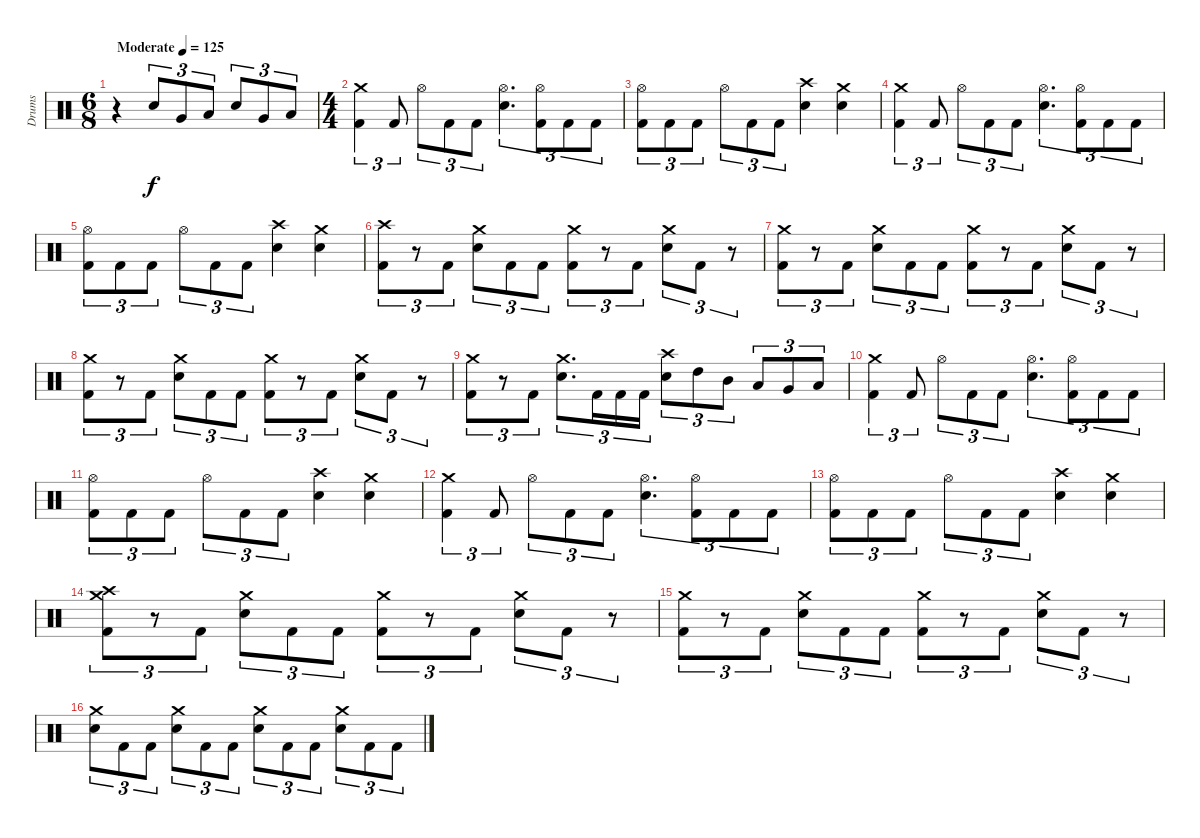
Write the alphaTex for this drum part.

\track ("Drums" "Drums") {instrument percussion}
\staff {score}
\articulation defaults
\ts (6 8)
\tempo (125 "Moderate")
\clef neutral
\ks c
r.4{dy f} "Snare (hit) 2".8{tu (3 2)} "Very Low Tom (hit)".8{tu (3 2)} "Low Tom (hit)".8{tu (3 2)} "Snare (hit) 2".8{tu (3 2)} "Very Low Tom (hit)".8{tu (3 2)} "Low Tom (hit)".8{tu (3 2)} |
\ts (4 4)
("Crash medium (hit)" "Kick (hit) 2").4{tu (3 2)} "Kick (hit) 2".8{tu (3 2)} "Hi-Hat (open)".8{tu (3 2)} "Kick (hit) 2".8{tu (3 2)} "Kick (hit) 2".8{tu (3 2)} ("Hi-Hat (open)" "Snare (hit) 2").4{d tu (3 2)} ("Hi-Hat (open)" "Kick (hit) 2").8{tu (3 2)} "Kick (hit) 2".8{tu (3 2)} "Kick (hit) 2".8{tu (3 2)} |
("Hi-Hat (open)" "Kick (hit) 2").8{tu (3 2)} "Kick (hit) 2".8{tu (3 2)} "Kick (hit) 2".8{tu (3 2)} "Hi-Hat (open)".8{tu (3 2)} "Kick (hit) 2".8{tu (3 2)} "Kick (hit) 2".8{tu (3 2)} ("Crash high (hit)" "Snare (hit) 2").4 ("Crash medium (hit)" "Snare (hit) 2").4 |
("Crash medium (hit)" "Kick (hit) 2").4{tu (3 2)} "Kick (hit) 2".8{tu (3 2)} "Hi-Hat (open)".8{tu (3 2)} "Kick (hit) 2".8{tu (3 2)} "Kick (hit) 2".8{tu (3 2)} ("Hi-Hat (open)" "Snare (hit) 2").4{d tu (3 2)} ("Hi-Hat (open)" "Kick (hit) 2").8{tu (3 2)} "Kick (hit) 2".8{tu (3 2)} "Kick (hit) 2".8{tu (3 2)} |
("Hi-Hat (open)" "Kick (hit) 2").8{tu (3 2)} "Kick (hit) 2".8{tu (3 2)} "Kick (hit) 2".8{tu (3 2)} "Hi-Hat (open)".8{tu (3 2)} "Kick (hit) 2".8{tu (3 2)} "Kick (hit) 2".8{tu (3 2)} ("Crash high (hit)" "Snare (hit) 2").4 ("Crash medium (hit)" "Snare (hit) 2").4 |
("Crash high (hit)" "Kick (hit) 2").8{tu (3 2)} r.8{tu (3 2)} "Kick (hit) 2".8{tu (3 2)} ("Crash medium (hit)" "Snare (hit) 2").8{tu (3 2)} "Kick (hit) 2".8{tu (3 2)} "Kick (hit) 2".8{tu (3 2)} ("Crash medium (hit)" "Kick (hit) 2").8{tu (3 2)} r.8{tu (3 2)} "Kick (hit) 2".8{tu (3 2)} ("Crash medium (hit)" "Snare (hit) 2").8{tu (3 2)} "Kick (hit) 2".8{tu (3 2)} r.8{tu (3 2)} |
("Crash medium (hit)" "Kick (hit) 2").8{tu (3 2)} r.8{tu (3 2)} "Kick (hit) 2".8{tu (3 2)} ("Crash medium (hit)" "Snare (hit) 2").8{tu (3 2)} "Kick (hit) 2".8{tu (3 2)} "Kick (hit) 2".8{tu (3 2)} ("Crash medium (hit)" "Kick (hit) 2").8{tu (3 2)} r.8{tu (3 2)} "Kick (hit) 2".8{tu (3 2)} ("Crash medium (hit)" "Snare (hit) 2").8{tu (3 2)} "Kick (hit) 2".8{tu (3 2)} r.8{tu (3 2)} |
("Crash medium (hit)" "Kick (hit) 2").8{tu (3 2)} r.8{tu (3 2)} "Kick (hit) 2".8{tu (3 2)} ("Crash medium (hit)" "Snare (hit) 2").8{tu (3 2)} "Kick (hit) 2".8{tu (3 2)} "Kick (hit) 2".8{tu (3 2)} ("Crash medium (hit)" "Kick (hit) 2").8{tu (3 2)} r.8{tu (3 2)} "Kick (hit) 2".8{tu (3 2)} ("Crash medium (hit)" "Snare (hit) 2").8{tu (3 2)} "Kick (hit) 2".8{tu (3 2)} r.8{tu (3 2)} |
("Crash medium (hit)" "Kick (hit) 2").8{tu (3 2)} r.8{tu (3 2)} "Kick (hit) 2".8{tu (3 2)} ("Crash medium (hit)" "Snare (hit) 2").8{d tu (3 2)} "Kick (hit) 2".16{tu (3 2)} "Kick (hit) 2".16{tu (3 2)} "Kick (hit) 2".16{tu (3 2)} ("Crash high (hit)" "Snare (hit) 2").8{tu (3 2)} "High Tom (hit)".8{tu (3 2)} "Mid Tom (hit)".8{tu (3 2)} "Low Tom (hit)".8{tu (3 2)} "Very Low Tom (hit)".8{tu (3 2)} "Low Floor Tom (hit)".8{tu (3 2)} |
("Crash medium (hit)" "Kick (hit) 2").4{tu (3 2)} "Kick (hit) 2".8{tu (3 2)} "Hi-Hat (open)".8{tu (3 2)} "Kick (hit) 2".8{tu (3 2)} "Kick (hit) 2".8{tu (3 2)} ("Hi-Hat (open)" "Snare (hit) 2").4{d tu (3 2)} ("Hi-Hat (open)" "Kick (hit) 2").8{tu (3 2)} "Kick (hit) 2".8{tu (3 2)} "Kick (hit) 2".8{tu (3 2)} |
("Hi-Hat (open)" "Kick (hit) 2").8{tu (3 2)} "Kick (hit) 2".8{tu (3 2)} "Kick (hit) 2".8{tu (3 2)} "Hi-Hat (open)".8{tu (3 2)} "Kick (hit) 2".8{tu (3 2)} "Kick (hit) 2".8{tu (3 2)} ("Crash high (hit)" "Snare (hit) 2").4 ("Crash medium (hit)" "Snare (hit) 2").4 |
("Crash medium (hit)" "Kick (hit) 2").4{tu (3 2)} "Kick (hit) 2".8{tu (3 2)} "Hi-Hat (open)".8{tu (3 2)} "Kick (hit) 2".8{tu (3 2)} "Kick (hit) 2".8{tu (3 2)} ("Hi-Hat (open)" "Snare (hit) 2").4{d tu (3 2)} ("Hi-Hat (open)" "Kick (hit) 2").8{tu (3 2)} "Kick (hit) 2".8{tu (3 2)} "Kick (hit) 2".8{tu (3 2)} |
("Hi-Hat (open)" "Kick (hit) 2").8{tu (3 2)} "Kick (hit) 2".8{tu (3 2)} "Kick (hit) 2".8{tu (3 2)} "Hi-Hat (open)".8{tu (3 2)} "Kick (hit) 2".8{tu (3 2)} "Kick (hit) 2".8{tu (3 2)} ("Crash high (hit)" "Snare (hit) 2").4 ("Crash medium (hit)" "Snare (hit) 2").4 |
("Crash medium (hit)" "Crash high (hit)" "Kick (hit) 2").8{tu (3 2)} r.8{tu (3 2)} "Kick (hit) 2".8{tu (3 2)} ("Crash medium (hit)" "Snare (hit) 2").8{tu (3 2)} "Kick (hit) 2".8{tu (3 2)} "Kick (hit) 2".8{tu (3 2)} ("Crash medium (hit)" "Kick (hit) 2").8{tu (3 2)} r.8{tu (3 2)} "Kick (hit) 2".8{tu (3 2)} ("Crash medium (hit)" "Snare (hit) 2").8{tu (3 2)} "Kick (hit) 2".8{tu (3 2)} r.8{tu (3 2)} |
("Crash medium (hit)" "Kick (hit) 2").8{tu (3 2)} r.8{tu (3 2)} "Kick (hit) 2".8{tu (3 2)} ("Crash medium (hit)" "Snare (hit) 2").8{tu (3 2)} "Kick (hit) 2".8{tu (3 2)} "Kick (hit) 2".8{tu (3 2)} ("Crash medium (hit)" "Kick (hit) 2").8{tu (3 2)} r.8{tu (3 2)} "Kick (hit) 2".8{tu (3 2)} ("Crash medium (hit)" "Snare (hit) 2").8{tu (3 2)} "Kick (hit) 2".8{tu (3 2)} r.8{tu (3 2)} |
("Crash medium (hit)" "Snare (hit) 2").8{tu (3 2)} "Kick (hit) 2".8{tu (3 2)} "Kick (hit) 2".8{tu (3 2)} ("Crash medium (hit)" "Snare (hit) 2").8{tu (3 2)} "Kick (hit) 2".8{tu (3 2)} "Kick (hit) 2".8{tu (3 2)} ("Crash medium (hit)" "Snare (hit) 2").8{tu (3 2)} "Kick (hit) 2".8{tu (3 2)} "Kick (hit) 2".8{tu (3 2)} ("Crash medium (hit)" "Snare (hit) 2").8{tu (3 2)} "Kick (hit) 2".8{tu (3 2)} "Kick (hit) 2".8{tu (3 2)}
